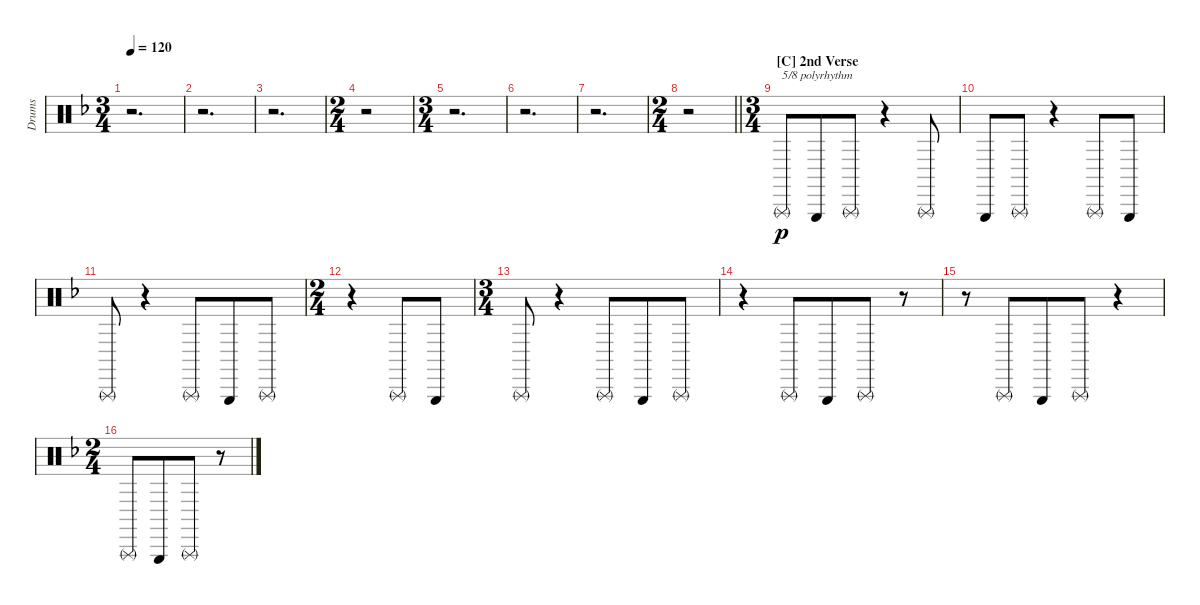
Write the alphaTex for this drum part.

\track ("Drums" "Drums") {instrument percussion}
\staff {score}
\articulation defaults
\ts (3 4)
\tempo 120
\clef neutral
\ks dminor
r.2{d dy p} |
r.2{d} |
r.2{d} |
\ts (2 4)
r.2 |
\ts (3 4)
r.2{d} |
r.2{d} |
r.2{d} |
\ts (2 4)
\barLineRight lightlight
r.2{volume 0} |
\ts (3 4)
\section ("" "[C] 2nd Verse")
"Triangle (rnute)".8{txt "5/8 polyrhythm" volume 10} "Triangle (hit)".8{beam merge} "Triangle (rnute)".8 r.4 "Triangle (rnute)".8 |
"Triangle (hit)".8 "Triangle (rnute)".8 r.4 "Triangle (rnute)".8 "Triangle (hit)".8 |
"Triangle (rnute)".8 r.4 "Triangle (rnute)".8{beam merge} "Triangle (hit)".8 "Triangle (rnute)".8 |
\ts (2 4)
r.4 "Triangle (rnute)".8 "Triangle (hit)".8 |
\ts (3 4)
"Triangle (rnute)".8 r.4 "Triangle (rnute)".8{beam merge} "Triangle (hit)".8 "Triangle (rnute)".8 |
r.4 "Triangle (rnute)".8 "Triangle (hit)".8{beam merge} "Triangle (rnute)".8 r.8 |
r.8 "Triangle (rnute)".8{beam merge} "Triangle (hit)".8 "Triangle (rnute)".8 r.4 |
\ts (2 4)
"Triangle (rnute)".8 "Triangle (hit)".8{beam merge} "Triangle (rnute)".8 r.8
